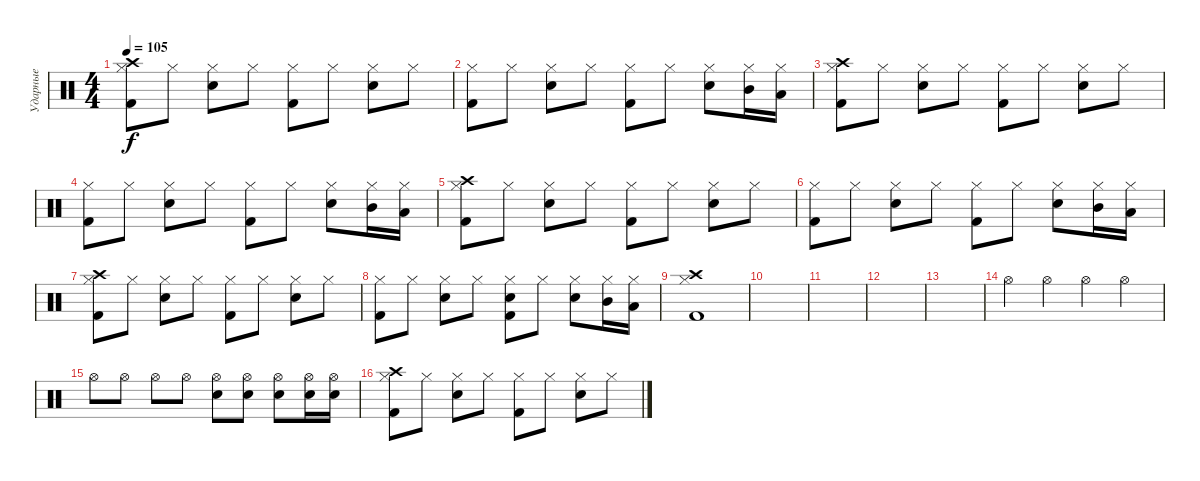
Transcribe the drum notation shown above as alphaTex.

\track ("Ударные" "Ударные") {instrument percussion}
\staff {score}
\articulation defaults
\ts (4 4)
\tempo 105
\clef neutral
\ks c
("Crash high (hit)" "Kick (hit) 2" "Hi-Hat (closed)").8{dy f} "Hi-Hat (closed)".8 ("Snare (hit) 2" "Hi-Hat (closed)").8 "Hi-Hat (closed)".8 ("Kick (hit) 2" "Hi-Hat (closed)").8 "Hi-Hat (closed)".8 ("Snare (hit) 2" "Hi-Hat (closed)").8 "Hi-Hat (closed)".8 |
("Kick (hit) 2" "Hi-Hat (closed)").8 "Hi-Hat (closed)".8 ("Snare (hit) 2" "Hi-Hat (closed)").8 "Hi-Hat (closed)".8 ("Kick (hit) 2" "Hi-Hat (closed)").8 "Hi-Hat (closed)".8 ("Snare (hit) 2" "Hi-Hat (closed)").8 ("Mid Tom (hit)" "Hi-Hat (closed)").16 ("Low Tom (hit)" "Hi-Hat (closed)").16 |
("Crash high (hit)" "Kick (hit) 2" "Hi-Hat (closed)").8 "Hi-Hat (closed)".8 ("Snare (hit) 2" "Hi-Hat (closed)").8 "Hi-Hat (closed)".8 ("Kick (hit) 2" "Hi-Hat (closed)").8 "Hi-Hat (closed)".8 ("Snare (hit) 2" "Hi-Hat (closed)").8 "Hi-Hat (closed)".8 |
("Kick (hit) 2" "Hi-Hat (closed)").8 "Hi-Hat (closed)".8 ("Snare (hit) 2" "Hi-Hat (closed)").8 "Hi-Hat (closed)".8 ("Kick (hit) 2" "Hi-Hat (closed)").8 "Hi-Hat (closed)".8 ("Snare (hit) 2" "Hi-Hat (closed)").8 ("Mid Tom (hit)" "Hi-Hat (closed)").16 ("Low Tom (hit)" "Hi-Hat (closed)").16 |
("Crash high (hit)" "Kick (hit) 2" "Hi-Hat (closed)").8 "Hi-Hat (closed)".8 ("Snare (hit) 2" "Hi-Hat (closed)").8 "Hi-Hat (closed)".8 ("Kick (hit) 2" "Hi-Hat (closed)").8 "Hi-Hat (closed)".8 ("Snare (hit) 2" "Hi-Hat (closed)").8 "Hi-Hat (closed)".8 |
("Kick (hit) 2" "Hi-Hat (closed)").8 "Hi-Hat (closed)".8 ("Snare (hit) 2" "Hi-Hat (closed)").8 "Hi-Hat (closed)".8 ("Kick (hit) 2" "Hi-Hat (closed)").8 "Hi-Hat (closed)".8 ("Snare (hit) 2" "Hi-Hat (closed)").8 ("Mid Tom (hit)" "Hi-Hat (closed)").16 ("Low Tom (hit)" "Hi-Hat (closed)").16 |
("Crash high (hit)" "Kick (hit) 2" "Hi-Hat (closed)").8 "Hi-Hat (closed)".8 ("Snare (hit) 2" "Hi-Hat (closed)").8 "Hi-Hat (closed)".8 ("Kick (hit) 2" "Hi-Hat (closed)").8 "Hi-Hat (closed)".8 ("Snare (hit) 2" "Hi-Hat (closed)").8 "Hi-Hat (closed)".8 |
("Kick (hit) 2" "Hi-Hat (closed)").8 "Hi-Hat (closed)".8 ("Snare (hit) 2" "Hi-Hat (closed)").8 "Hi-Hat (closed)".8 ("Snare (hit) 2" "Kick (hit) 2" "Hi-Hat (closed)").8 "Hi-Hat (closed)".8 ("Snare (hit) 2" "Hi-Hat (closed)").8 ("Mid Tom (hit)" "Hi-Hat (closed)").16 ("Low Tom (hit)" "Hi-Hat (closed)").16 |
("Crash high (hit)" "Kick (hit) 2" "Hi-Hat (closed)").1 |
|
|
|
|
"Hi-Hat (open)".4 "Hi-Hat (open)".4 "Hi-Hat (open)".4 "Hi-Hat (open)".4 |
"Hi-Hat (open)".8 "Hi-Hat (open)".8 "Hi-Hat (open)".8 "Hi-Hat (open)".8 ("Snare (hit) 2" "Hi-Hat (open)").8 ("Snare (hit) 2" "Hi-Hat (open)").8 ("Snare (hit) 2" "Hi-Hat (open)").8 ("Snare (hit) 2" "Hi-Hat (open)").16 ("Snare (hit) 2" "Hi-Hat (open)").16 |
("Crash high (hit)" "Kick (hit) 2" "Hi-Hat (closed)").8 "Hi-Hat (closed)".8 ("Snare (hit) 2" "Hi-Hat (closed)").8 "Hi-Hat (closed)".8 ("Kick (hit) 2" "Hi-Hat (closed)").8 "Hi-Hat (closed)".8 ("Snare (hit) 2" "Hi-Hat (closed)").8 "Hi-Hat (closed)".8
